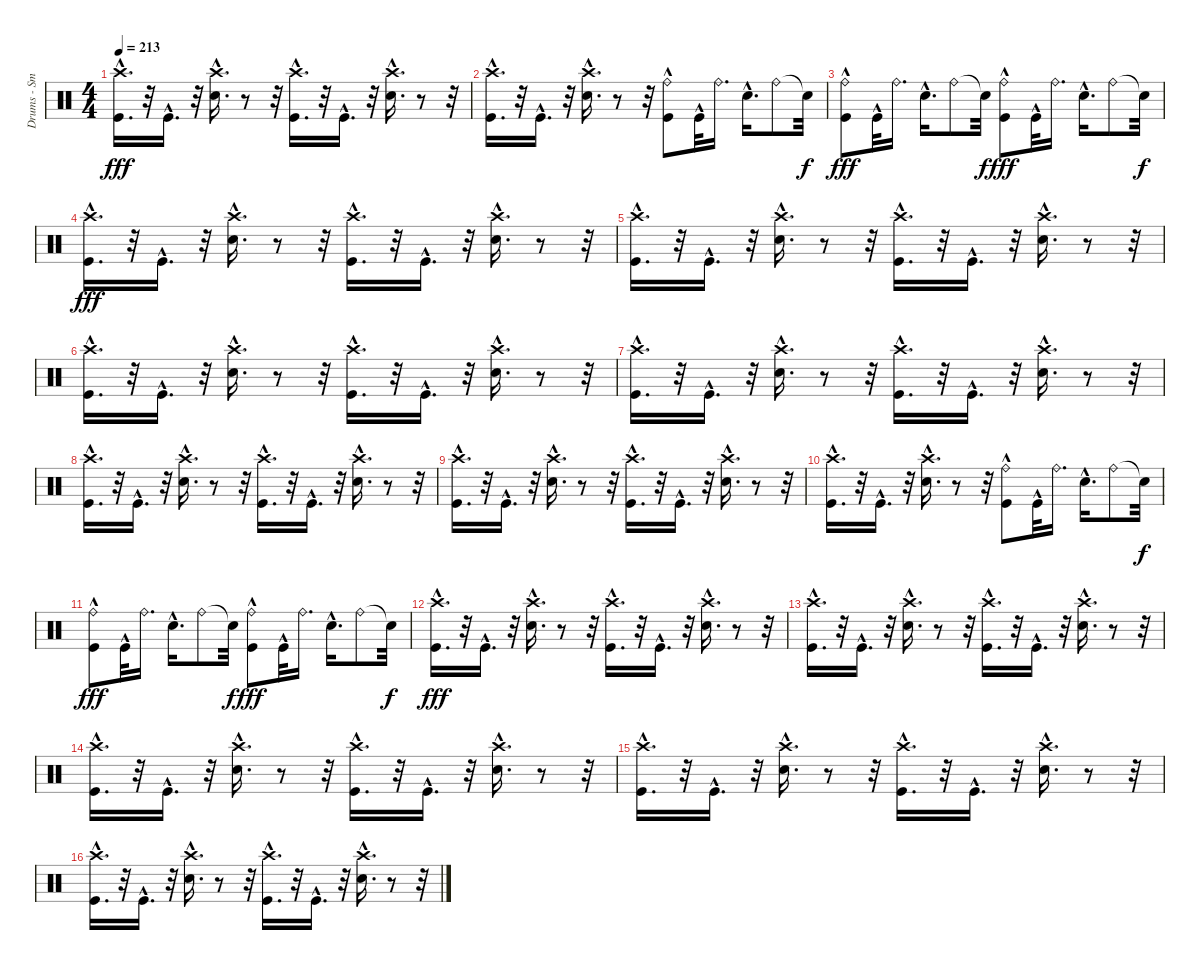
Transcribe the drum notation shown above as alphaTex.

\track ("Drums - Smelly" "Drums - Sm") {instrument percussion}
\staff {score}
\articulation defaults
\ts (4 4)
\tempo 213
\clef neutral
\ks c
("Crash high (hit)"{hac} "Kick (hit)"{hac}).16{d dy fff} r.32 "Kick (hit)"{hac}.16{d} r.32 ("Crash high (hit)"{hac} "Electric Snare (hit)"{hac}).16{d} r.8 r.32 ("Crash high (hit)"{hac} "Kick (hit)"{hac}).16{d volume 16} r.32 "Kick (hit)"{hac}.16{d volume 16} r.32 ("Electric Snare (hit)"{hac} "Crash high (hit)"{hac}).16{d volume 16} r.8 r.32 |
("Crash high (hit)"{hac} "Kick (hit)"{hac}).16{d volume 15} r.32 "Kick (hit)"{hac}.16{d volume 15} r.32 ("Crash high (hit)"{hac} "Electric Snare (hit)"{hac}).16{d} r.8 r.32 ("Kick (hit)"{hac} "Ride (bell)").8{volume 15} "Kick (hit)"{hac}.32 "Ride (bell)".16{d} "Electric Snare (hit)"{hac}.16{d volume 15} "Ride (bell)".8 "Snare (hit)"{t}.32{dy f} |
("Ride (bell)" "Kick (hit)"{hac}).8{dy fff volume 15} "Kick (hit)"{hac}.32{volume 15} "Ride (bell)".16{d} "Electric Snare (hit)"{hac}.16{d} "Ride (bell)".8{volume 14} "Snare (hit)"{t}.32{dy f} ("Ride (bell)" "Kick (hit)"{hac}).8{dy fff volume 14} "Kick (hit)"{hac}.32{volume 14} "Ride (bell)".16{d} "Electric Snare (hit)"{hac}.16{d} "Ride (bell)".8 "Snare (hit)"{t}.32{dy f} |
("Crash high (hit)"{hac} "Kick (hit)"{hac}).16{d dy fff volume 14} r.32 "Kick (hit)"{hac}.16{d volume 14} r.32 ("Crash high (hit)"{hac} "Electric Snare (hit)"{hac}).16{d volume 14} r.8 r.32 ("Kick (hit)"{hac} "Crash high (hit)"{hac}).16{d volume 14} r.32 "Kick (hit)"{hac}.16{d volume 14} r.32 ("Electric Snare (hit)"{hac} "Crash high (hit)"{hac}).16{d} r.8 r.32 |
("Crash high (hit)"{hac} "Kick (hit)"{hac}).16{d volume 14} r.32 "Kick (hit)"{hac}.16{d volume 13} r.32 ("Crash high (hit)"{hac} "Electric Snare (hit)"{hac}).16{d volume 13} r.8 r.32 ("Crash high (hit)"{hac} "Kick (hit)"{hac}).16{d volume 13} r.32 "Kick (hit)"{hac}.16{d volume 13} r.32 ("Electric Snare (hit)"{hac} "Crash high (hit)"{hac}).16{d} r.8 r.32 |
("Crash high (hit)"{hac} "Kick (hit)"{hac}).16{d volume 13} r.32 "Kick (hit)"{hac}.16{d} r.32 ("Crash high (hit)"{hac} "Electric Snare (hit)"{hac}).16{d volume 13} r.8 r.32 ("Kick (hit)"{hac} "Crash high (hit)"{hac}).16{d volume 12} r.32 "Kick (hit)"{hac}.16{d volume 12} r.32 ("Electric Snare (hit)"{hac} "Crash high (hit)"{hac}).16{d volume 12} r.8 r.32 |
("Crash high (hit)"{hac} "Kick (hit)"{hac}).16{d volume 12} r.32 "Kick (hit)"{hac}.16{d volume 12} r.32 ("Crash high (hit)"{hac} "Electric Snare (hit)"{hac}).16{d} r.8 r.32 ("Crash high (hit)"{hac} "Kick (hit)"{hac}).16{d volume 12} r.32 "Kick (hit)"{hac}.16{d volume 12} r.32 ("Electric Snare (hit)"{hac} "Crash high (hit)"{hac}).16{d volume 12} r.8 r.32 |
("Crash high (hit)"{hac} "Kick (hit)"{hac}).16{d volume 12} r.32 "Kick (hit)"{hac}.16{d volume 11} r.32 ("Crash high (hit)"{hac} "Electric Snare (hit)"{hac}).16{d} r.8 r.32 ("Kick (hit)"{hac} "Crash high (hit)"{hac}).16{d volume 11} r.32 "Kick (hit)"{hac}.16{d} r.32 ("Electric Snare (hit)"{hac} "Crash high (hit)"{hac}).16{d volume 11} r.8 r.32 |
("Crash high (hit)"{hac} "Kick (hit)"{hac}).16{d volume 11} r.32 "Kick (hit)"{hac}.16{d volume 11} r.32 ("Crash high (hit)"{hac} "Electric Snare (hit)"{hac}).16{d} r.8 r.32 ("Crash high (hit)"{hac} "Kick (hit)"{hac}).16{d volume 10} r.32 "Kick (hit)"{hac}.16{d volume 10} r.32 ("Electric Snare (hit)"{hac} "Crash high (hit)"{hac}).16{d} r.8 r.32 |
("Crash high (hit)"{hac} "Kick (hit)"{hac}).16{d volume 10} r.32 "Kick (hit)"{hac}.16{d volume 10} r.32 ("Crash high (hit)"{hac} "Electric Snare (hit)"{hac}).16{d volume 10} r.8 r.32 ("Kick (hit)"{hac} "Ride (bell)").8{volume 10} "Kick (hit)"{hac}.32{volume 10} "Ride (bell)".16{d} "Electric Snare (hit)"{hac}.16{d} "Ride (bell)".8{volume 10} "Snare (hit)"{t}.32{dy f} |
("Ride (bell)" "Kick (hit)"{hac}).8{dy fff} "Kick (hit)"{hac}.32{volume 10} "Ride (bell)".16{d} "Electric Snare (hit)"{hac}.16{d volume 9} "Ride (bell)".8 "Snare (hit)"{t}.32{dy f} ("Ride (bell)" "Kick (hit)"{hac}).8{dy fff volume 9} "Kick (hit)"{hac}.32{volume 9} "Ride (bell)".16{d} "Electric Snare (hit)"{hac}.16{d} "Ride (bell)".8{volume 9} "Snare (hit)"{t}.32{dy f} |
("Crash high (hit)"{hac} "Kick (hit)"{hac}).16{d dy fff volume 9} r.32 "Kick (hit)"{hac}.16{d volume 9} r.32 ("Crash high (hit)"{hac} "Electric Snare (hit)"{hac}).16{d} r.8 r.32 ("Kick (hit)"{hac} "Crash high (hit)"{hac}).16{d volume 9} r.32 "Kick (hit)"{hac}.16{d volume 8} r.32 ("Electric Snare (hit)"{hac} "Crash high (hit)"{hac}).16{d volume 8} r.8 r.32 |
("Crash high (hit)"{hac} "Kick (hit)"{hac}).16{d volume 8} r.32 "Kick (hit)"{hac}.16{d volume 8} r.32 ("Crash high (hit)"{hac} "Electric Snare (hit)"{hac}).16{d} r.8 r.32 ("Crash high (hit)"{hac} "Kick (hit)"{hac}).16{d volume 8} r.32 "Kick (hit)"{hac}.16{d volume 8} r.32 ("Electric Snare (hit)"{hac} "Crash high (hit)"{hac}).16{d volume 8} r.8 r.32 |
("Crash high (hit)"{hac} "Kick (hit)"{hac}).16{d volume 8} r.32 "Kick (hit)"{hac}.16{d volume 8} r.32 ("Crash high (hit)"{hac} "Electric Snare (hit)"{hac}).16{d} r.8 r.32 ("Kick (hit)"{hac} "Crash high (hit)"{hac}).16{d volume 7} r.32 "Kick (hit)"{hac}.16{d} r.32 ("Electric Snare (hit)"{hac} "Crash high (hit)"{hac}).16{d volume 7} r.8 r.32 |
("Crash high (hit)"{hac} "Kick (hit)"{hac}).16{d volume 7} r.32 "Kick (hit)"{hac}.16{d volume 7} r.32 ("Crash high (hit)"{hac} "Electric Snare (hit)"{hac}).16{d} r.8 r.32 ("Crash high (hit)"{hac} "Kick (hit)"{hac}).16{d volume 7} r.32 "Kick (hit)"{hac}.16{d volume 6} r.32 ("Electric Snare (hit)"{hac} "Crash high (hit)"{hac}).16{d} r.8 r.32 |
("Crash high (hit)"{hac} "Kick (hit)"{hac}).16{d volume 6} r.32 "Kick (hit)"{hac}.16{d volume 6} r.32 ("Crash high (hit)"{hac} "Electric Snare (hit)"{hac}).16{d volume 6} r.8 r.32 ("Kick (hit)"{hac} "Crash high (hit)"{hac}).16{d volume 6} r.32 "Kick (hit)"{hac}.16{d volume 6} r.32 ("Electric Snare (hit)"{hac} "Crash high (hit)"{hac}).16{d} r.8 r.32
